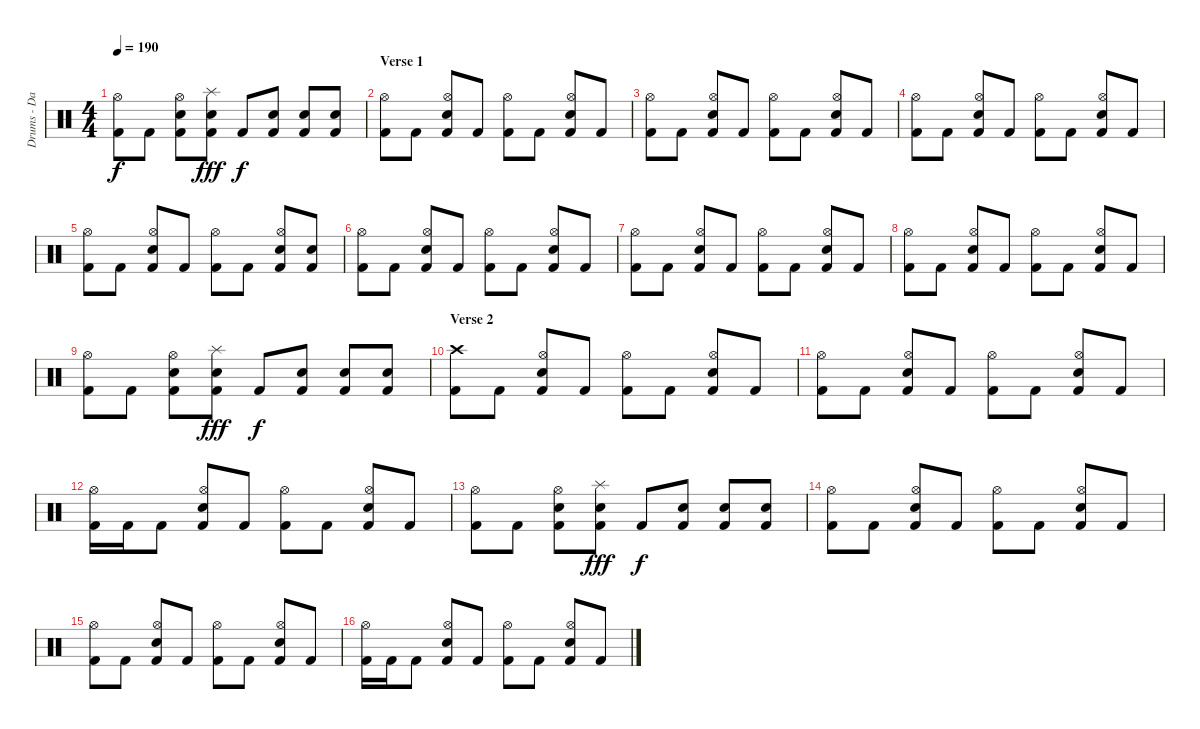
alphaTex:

\track ("Drums - Daniel Zimmermann" "Drums - Da") {instrument percussion}
\staff {score}
\articulation defaults
\ts (4 4)
\tempo 190
\clef neutral
\ks c
("Kick (hit) 2" "Hi-Hat (open)").8{dy f} "Kick (hit) 2".8 ("Kick (hit) 2" "Electric Snare (hit)" "Hi-Hat (open)").8 ("Kick (hit) 2" "Electric Snare (hit)" "Splash (hit)").8{dy fff} "Kick (hit) 2".8{dy f} ("Kick (hit) 2" "Electric Snare (hit)").8 ("Kick (hit) 2" "Electric Snare (hit)").8 ("Kick (hit) 2" "Electric Snare (hit)").8 |
\section ("" "Verse 1")
("Kick (hit) 2" "Hi-Hat (open)").8 "Kick (hit) 2".8 ("Kick (hit) 2" "Electric Snare (hit)" "Hi-Hat (open)").8 "Kick (hit) 2".8 ("Kick (hit) 2" "Hi-Hat (open)").8 "Kick (hit) 2".8 ("Kick (hit) 2" "Electric Snare (hit)" "Hi-Hat (open)").8 "Kick (hit) 2".8 |
("Kick (hit) 2" "Hi-Hat (open)").8 "Kick (hit) 2".8 ("Kick (hit) 2" "Electric Snare (hit)" "Hi-Hat (open)").8 "Kick (hit) 2".8 ("Kick (hit) 2" "Hi-Hat (open)").8 "Kick (hit) 2".8 ("Kick (hit) 2" "Electric Snare (hit)" "Hi-Hat (open)").8 "Kick (hit) 2".8 |
("Kick (hit) 2" "Hi-Hat (open)").8 "Kick (hit) 2".8 ("Kick (hit) 2" "Electric Snare (hit)" "Hi-Hat (open)").8 "Kick (hit) 2".8 ("Kick (hit) 2" "Hi-Hat (open)").8 "Kick (hit) 2".8 ("Kick (hit) 2" "Electric Snare (hit)" "Hi-Hat (open)").8 "Kick (hit) 2".8 |
("Kick (hit) 2" "Hi-Hat (open)").8 "Kick (hit) 2".8 ("Kick (hit) 2" "Electric Snare (hit)" "Hi-Hat (open)").8 "Kick (hit) 2".8 ("Kick (hit) 2" "Hi-Hat (open)").8 "Kick (hit) 2".8 ("Kick (hit) 2" "Electric Snare (hit)" "Hi-Hat (open)").8 ("Kick (hit) 2" "Electric Snare (hit)").8 |
("Kick (hit) 2" "Hi-Hat (open)").8 "Kick (hit) 2".8 ("Kick (hit) 2" "Electric Snare (hit)" "Hi-Hat (open)").8 "Kick (hit) 2".8 ("Kick (hit) 2" "Hi-Hat (open)").8 "Kick (hit) 2".8 ("Kick (hit) 2" "Electric Snare (hit)" "Hi-Hat (open)").8 "Kick (hit) 2".8 |
("Kick (hit) 2" "Hi-Hat (open)").8 "Kick (hit) 2".8 ("Kick (hit) 2" "Electric Snare (hit)" "Hi-Hat (open)").8 "Kick (hit) 2".8 ("Kick (hit) 2" "Hi-Hat (open)").8 "Kick (hit) 2".8 ("Kick (hit) 2" "Electric Snare (hit)" "Hi-Hat (open)").8 "Kick (hit) 2".8 |
("Kick (hit) 2" "Hi-Hat (open)").8 "Kick (hit) 2".8 ("Kick (hit) 2" "Electric Snare (hit)" "Hi-Hat (open)").8 "Kick (hit) 2".8 ("Kick (hit) 2" "Hi-Hat (open)").8 "Kick (hit) 2".8 ("Kick (hit) 2" "Electric Snare (hit)" "Hi-Hat (open)").8 "Kick (hit) 2".8 |
("Kick (hit) 2" "Hi-Hat (open)").8 "Kick (hit) 2".8 ("Kick (hit) 2" "Electric Snare (hit)" "Hi-Hat (open)").8 ("Kick (hit) 2" "Electric Snare (hit)" "Splash (hit)").8{dy fff} "Kick (hit) 2".8{dy f} ("Kick (hit) 2" "Electric Snare (hit)").8 ("Kick (hit) 2" "Electric Snare (hit)").8 ("Kick (hit) 2" "Electric Snare (hit)").8 |
\section ("" "Verse 2")
("Kick (hit) 2" "Crash high (hit)").8 "Kick (hit) 2".8 ("Kick (hit) 2" "Electric Snare (hit)" "Hi-Hat (open)").8 "Kick (hit) 2".8 ("Kick (hit) 2" "Hi-Hat (open)").8 "Kick (hit) 2".8 ("Kick (hit) 2" "Electric Snare (hit)" "Hi-Hat (open)").8 "Kick (hit) 2".8 |
("Kick (hit) 2" "Hi-Hat (open)").8 "Kick (hit) 2".8 ("Kick (hit) 2" "Electric Snare (hit)" "Hi-Hat (open)").8 "Kick (hit) 2".8 ("Kick (hit) 2" "Hi-Hat (open)").8 "Kick (hit) 2".8 ("Kick (hit) 2" "Electric Snare (hit)" "Hi-Hat (open)").8 "Kick (hit) 2".8 |
("Kick (hit) 2" "Hi-Hat (open)").16 "Kick (hit) 2".16 "Kick (hit) 2".8 ("Kick (hit) 2" "Electric Snare (hit)" "Hi-Hat (open)").8 "Kick (hit) 2".8 ("Kick (hit) 2" "Hi-Hat (open)").8 "Kick (hit) 2".8 ("Kick (hit) 2" "Electric Snare (hit)" "Hi-Hat (open)").8 "Kick (hit) 2".8 |
("Kick (hit) 2" "Hi-Hat (open)").8 "Kick (hit) 2".8 ("Kick (hit) 2" "Electric Snare (hit)" "Hi-Hat (open)").8 ("Kick (hit) 2" "Electric Snare (hit)" "Splash (hit)").8{dy fff} "Kick (hit) 2".8{dy f} ("Kick (hit) 2" "Electric Snare (hit)").8 ("Kick (hit) 2" "Electric Snare (hit)").8 ("Kick (hit) 2" "Electric Snare (hit)").8 |
("Kick (hit) 2" "Hi-Hat (open)").8 "Kick (hit) 2".8 ("Kick (hit) 2" "Electric Snare (hit)" "Hi-Hat (open)").8 "Kick (hit) 2".8 ("Kick (hit) 2" "Hi-Hat (open)").8 "Kick (hit) 2".8 ("Kick (hit) 2" "Electric Snare (hit)" "Hi-Hat (open)").8 "Kick (hit) 2".8 |
("Kick (hit) 2" "Hi-Hat (open)").8 "Kick (hit) 2".8 ("Kick (hit) 2" "Electric Snare (hit)" "Hi-Hat (open)").8 "Kick (hit) 2".8 ("Kick (hit) 2" "Hi-Hat (open)").8 "Kick (hit) 2".8 ("Kick (hit) 2" "Electric Snare (hit)" "Hi-Hat (open)").8 "Kick (hit) 2".8 |
("Kick (hit) 2" "Hi-Hat (open)").16 "Kick (hit) 2".16 "Kick (hit) 2".8 ("Kick (hit) 2" "Electric Snare (hit)" "Hi-Hat (open)").8 "Kick (hit) 2".8 ("Kick (hit) 2" "Hi-Hat (open)").8 "Kick (hit) 2".8 ("Kick (hit) 2" "Electric Snare (hit)" "Hi-Hat (open)").8 "Kick (hit) 2".8
